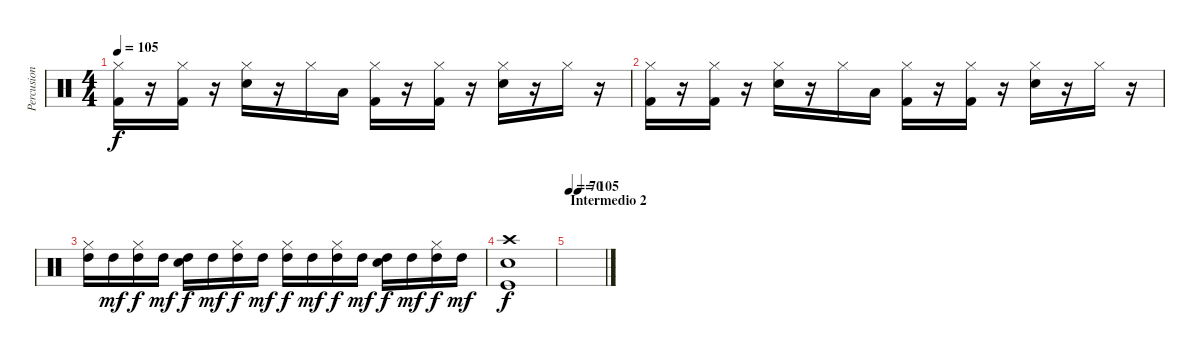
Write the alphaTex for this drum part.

\track ("Percusion" "Percusion") {instrument percussion}
\staff {score}
\articulation defaults
\ts (4 4)
\tempo 105
\clef neutral
\ks c
("Hi-Hat (closed)" "Kick (hit) 2").16{dy f} r.16 ("Hi-Hat (closed)" "Kick (hit) 2").16 r.16 ("Hi-Hat (closed)" "Snare (hit) 2").16 r.16 "Hi-Hat (closed)".16 "Low Floor Tom (hit)".16 ("Hi-Hat (closed)" "Kick (hit) 2").16 r.16 ("Hi-Hat (closed)" "Kick (hit) 2").16 r.16 ("Hi-Hat (closed)" "Snare (hit) 2").16 r.16 "Hi-Hat (closed)".16 r.16 |
("Hi-Hat (closed)" "Kick (hit) 2").16 r.16 ("Hi-Hat (closed)" "Kick (hit) 2").16 r.16 ("Hi-Hat (closed)" "Snare (hit) 2").16 r.16 "Hi-Hat (closed)".16 "Low Floor Tom (hit)".16 ("Hi-Hat (closed)" "Kick (hit) 2").16 r.16 ("Hi-Hat (closed)" "Kick (hit) 2").16 r.16 ("Hi-Hat (closed)" "Snare (hit) 2").16 r.16 "Hi-Hat (closed)".16 r.16 |
("Hi-Hat (closed)" "High Tom (hit)").16 "High Tom (hit)".16{dy mf} ("Hi-Hat (closed)" "High Tom (hit)").16{dy f} "High Tom (hit)".16{dy mf} ("Snare (hit) 2" "High Tom (hit)").16{dy f} "High Tom (hit)".16{dy mf} ("Hi-Hat (closed)" "High Tom (hit)").16{dy f} "High Tom (hit)".16{dy mf} ("Hi-Hat (closed)" "High Tom (hit)").16{dy f} "High Tom (hit)".16{dy mf} ("Hi-Hat (closed)" "High Tom (hit)").16{dy f} "High Tom (hit)".16{dy mf} ("Snare (hit) 2" "High Tom (hit)").16{dy f} "High Tom (hit)".16{dy mf} ("Hi-Hat (closed)" "High Tom (hit)").16{dy f} "High Tom (hit)".16{dy mf} |
("Crash high (hit)" "Kick (hit)" "Snare (hit) 2").1{dy f} |
\section ("" "Intermedio 2")
\tempo 70
\tempo (105 0.25)
